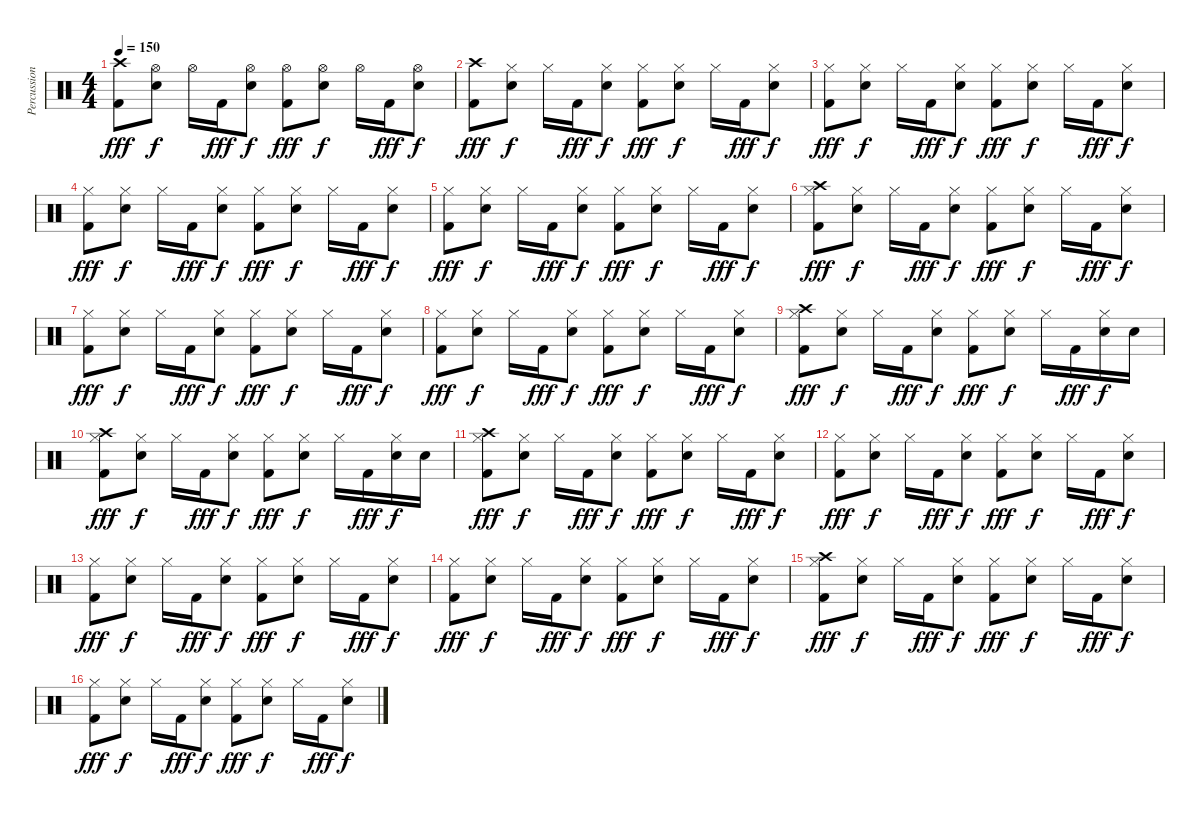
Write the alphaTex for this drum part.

\track ("Percussions" "Percussion") {instrument percussion}
\staff {score}
\articulation defaults
\ts (4 4)
\tempo 150
\clef neutral
\ks c
("Crash high (hit)" "Kick (hit) 2").8{dy fff} ("Hi-Hat (open)" "Snare (hit) 2").8{dy f} "Hi-Hat (open)".16 "Kick (hit) 2".16{dy fff} ("Hi-Hat (open)" "Snare (hit) 2").8{dy f} ("Hi-Hat (open)" "Kick (hit) 2").8{dy fff} ("Hi-Hat (open)" "Snare (hit) 2").8{dy f} "Hi-Hat (open)".16 "Kick (hit) 2".16{dy fff} ("Hi-Hat (open)" "Snare (hit) 2").8{dy f} |
("Crash high (hit)" "Kick (hit) 2").8{dy fff} ("Hi-Hat (closed)" "Snare (hit) 2").8{dy f} "Hi-Hat (closed)".16 "Kick (hit) 2".16{dy fff} ("Hi-Hat (closed)" "Snare (hit) 2").8{dy f} ("Hi-Hat (closed)" "Kick (hit) 2").8{dy fff} ("Hi-Hat (closed)" "Snare (hit) 2").8{dy f} "Hi-Hat (closed)".16 "Kick (hit) 2".16{dy fff} ("Hi-Hat (closed)" "Snare (hit) 2").8{dy f} |
("Hi-Hat (closed)" "Kick (hit) 2").8{dy fff} ("Hi-Hat (closed)" "Snare (hit) 2").8{dy f} "Hi-Hat (closed)".16 "Kick (hit) 2".16{dy fff} ("Hi-Hat (closed)" "Snare (hit) 2").8{dy f} ("Hi-Hat (closed)" "Kick (hit) 2").8{dy fff} ("Hi-Hat (closed)" "Snare (hit) 2").8{dy f} "Hi-Hat (closed)".16 "Kick (hit) 2".16{dy fff} ("Hi-Hat (closed)" "Snare (hit) 2").8{dy f} |
("Hi-Hat (closed)" "Kick (hit) 2").8{dy fff} ("Hi-Hat (closed)" "Snare (hit) 2").8{dy f} "Hi-Hat (closed)".16 "Kick (hit) 2".16{dy fff} ("Hi-Hat (closed)" "Snare (hit) 2").8{dy f} ("Hi-Hat (closed)" "Kick (hit) 2").8{dy fff} ("Hi-Hat (closed)" "Snare (hit) 2").8{dy f} "Hi-Hat (closed)".16 "Kick (hit) 2".16{dy fff} ("Hi-Hat (closed)" "Snare (hit) 2").8{dy f} |
("Hi-Hat (closed)" "Kick (hit) 2").8{dy fff} ("Hi-Hat (closed)" "Snare (hit) 2").8{dy f} "Hi-Hat (closed)".16 "Kick (hit) 2".16{dy fff} ("Hi-Hat (closed)" "Snare (hit) 2").8{dy f} ("Hi-Hat (closed)" "Kick (hit) 2").8{dy fff} ("Hi-Hat (closed)" "Snare (hit) 2").8{dy f} "Hi-Hat (closed)".16 "Kick (hit) 2".16{dy fff} ("Hi-Hat (closed)" "Snare (hit) 2").8{dy f} |
("Crash high (hit)" "Hi-Hat (closed)" "Kick (hit) 2").8{dy fff} ("Hi-Hat (closed)" "Snare (hit) 2").8{dy f} "Hi-Hat (closed)".16 "Kick (hit) 2".16{dy fff} ("Hi-Hat (closed)" "Snare (hit) 2").8{dy f} ("Hi-Hat (closed)" "Kick (hit) 2").8{dy fff} ("Hi-Hat (closed)" "Snare (hit) 2").8{dy f} "Hi-Hat (closed)".16 "Kick (hit) 2".16{dy fff} ("Hi-Hat (closed)" "Snare (hit) 2").8{dy f} |
("Hi-Hat (closed)" "Kick (hit) 2").8{dy fff} ("Hi-Hat (closed)" "Snare (hit) 2").8{dy f} "Hi-Hat (closed)".16 "Kick (hit) 2".16{dy fff} ("Hi-Hat (closed)" "Snare (hit) 2").8{dy f} ("Hi-Hat (closed)" "Kick (hit) 2").8{dy fff} ("Hi-Hat (closed)" "Snare (hit) 2").8{dy f} "Hi-Hat (closed)".16 "Kick (hit) 2".16{dy fff} ("Hi-Hat (closed)" "Snare (hit) 2").8{dy f} |
("Hi-Hat (closed)" "Kick (hit) 2").8{dy fff} ("Hi-Hat (closed)" "Snare (hit) 2").8{dy f} "Hi-Hat (closed)".16 "Kick (hit) 2".16{dy fff} ("Hi-Hat (closed)" "Snare (hit) 2").8{dy f} ("Hi-Hat (closed)" "Kick (hit) 2").8{dy fff} ("Hi-Hat (closed)" "Snare (hit) 2").8{dy f} "Hi-Hat (closed)".16 "Kick (hit) 2".16{dy fff} ("Hi-Hat (closed)" "Snare (hit) 2").8{dy f} |
("Crash high (hit)" "Hi-Hat (closed)" "Kick (hit) 2").8{dy fff} ("Hi-Hat (closed)" "Snare (hit) 2").8{dy f} "Hi-Hat (closed)".16 "Kick (hit) 2".16{dy fff} ("Hi-Hat (closed)" "Snare (hit) 2").8{dy f} ("Hi-Hat (closed)" "Kick (hit) 2").8{dy fff} ("Hi-Hat (closed)" "Snare (hit) 2").8{dy f} "Hi-Hat (closed)".16 "Kick (hit) 2".16{dy fff} ("Hi-Hat (closed)" "Snare (hit) 2").16{dy f} "Snare (hit) 2".16 |
("Crash high (hit)" "Hi-Hat (closed)" "Kick (hit) 2").8{dy fff} ("Hi-Hat (closed)" "Snare (hit) 2").8{dy f} "Hi-Hat (closed)".16 "Kick (hit) 2".16{dy fff} ("Hi-Hat (closed)" "Snare (hit) 2").8{dy f} ("Hi-Hat (closed)" "Kick (hit) 2").8{dy fff} ("Hi-Hat (closed)" "Snare (hit) 2").8{dy f} "Hi-Hat (closed)".16 "Kick (hit) 2".16{dy fff} ("Hi-Hat (closed)" "Snare (hit) 2").16{dy f} "Snare (hit) 2".16 |
("Crash high (hit)" "Hi-Hat (closed)" "Kick (hit) 2").8{dy fff} ("Hi-Hat (closed)" "Snare (hit) 2").8{dy f} "Hi-Hat (closed)".16 "Kick (hit) 2".16{dy fff} ("Hi-Hat (closed)" "Snare (hit) 2").8{dy f} ("Hi-Hat (closed)" "Kick (hit) 2").8{dy fff} ("Hi-Hat (closed)" "Snare (hit) 2").8{dy f} "Hi-Hat (closed)".16 "Kick (hit) 2".16{dy fff} ("Hi-Hat (closed)" "Snare (hit) 2").8{dy f} |
("Hi-Hat (closed)" "Kick (hit) 2").8{dy fff} ("Hi-Hat (closed)" "Snare (hit) 2").8{dy f} "Hi-Hat (closed)".16 "Kick (hit) 2".16{dy fff} ("Hi-Hat (closed)" "Snare (hit) 2").8{dy f} ("Hi-Hat (closed)" "Kick (hit) 2").8{dy fff} ("Hi-Hat (closed)" "Snare (hit) 2").8{dy f} "Hi-Hat (closed)".16 "Kick (hit) 2".16{dy fff} ("Hi-Hat (closed)" "Snare (hit) 2").8{dy f} |
("Hi-Hat (closed)" "Kick (hit) 2").8{dy fff} ("Hi-Hat (closed)" "Snare (hit) 2").8{dy f} "Hi-Hat (closed)".16 "Kick (hit) 2".16{dy fff} ("Hi-Hat (closed)" "Snare (hit) 2").8{dy f} ("Hi-Hat (closed)" "Kick (hit) 2").8{dy fff} ("Hi-Hat (closed)" "Snare (hit) 2").8{dy f} "Hi-Hat (closed)".16 "Kick (hit) 2".16{dy fff} ("Hi-Hat (closed)" "Snare (hit) 2").8{dy f} |
("Hi-Hat (closed)" "Kick (hit) 2").8{dy fff} ("Hi-Hat (closed)" "Snare (hit) 2").8{dy f} "Hi-Hat (closed)".16 "Kick (hit) 2".16{dy fff} ("Hi-Hat (closed)" "Snare (hit) 2").8{dy f} ("Hi-Hat (closed)" "Kick (hit) 2").8{dy fff} ("Hi-Hat (closed)" "Snare (hit) 2").8{dy f} "Hi-Hat (closed)".16 "Kick (hit) 2".16{dy fff} ("Hi-Hat (closed)" "Snare (hit) 2").8{dy f} |
("Crash high (hit)" "Hi-Hat (closed)" "Kick (hit) 2").8{dy fff} ("Hi-Hat (closed)" "Snare (hit) 2").8{dy f} "Hi-Hat (closed)".16 "Kick (hit) 2".16{dy fff} ("Hi-Hat (closed)" "Snare (hit) 2").8{dy f} ("Hi-Hat (closed)" "Kick (hit) 2").8{dy fff} ("Hi-Hat (closed)" "Snare (hit) 2").8{dy f} "Hi-Hat (closed)".16 "Kick (hit) 2".16{dy fff} ("Hi-Hat (closed)" "Snare (hit) 2").8{dy f} |
("Hi-Hat (closed)" "Kick (hit) 2").8{dy fff} ("Hi-Hat (closed)" "Snare (hit) 2").8{dy f} "Hi-Hat (closed)".16 "Kick (hit) 2".16{dy fff} ("Hi-Hat (closed)" "Snare (hit) 2").8{dy f} ("Hi-Hat (closed)" "Kick (hit) 2").8{dy fff} ("Hi-Hat (closed)" "Snare (hit) 2").8{dy f} "Hi-Hat (closed)".16 "Kick (hit) 2".16{dy fff} ("Hi-Hat (closed)" "Snare (hit) 2").8{dy f}
